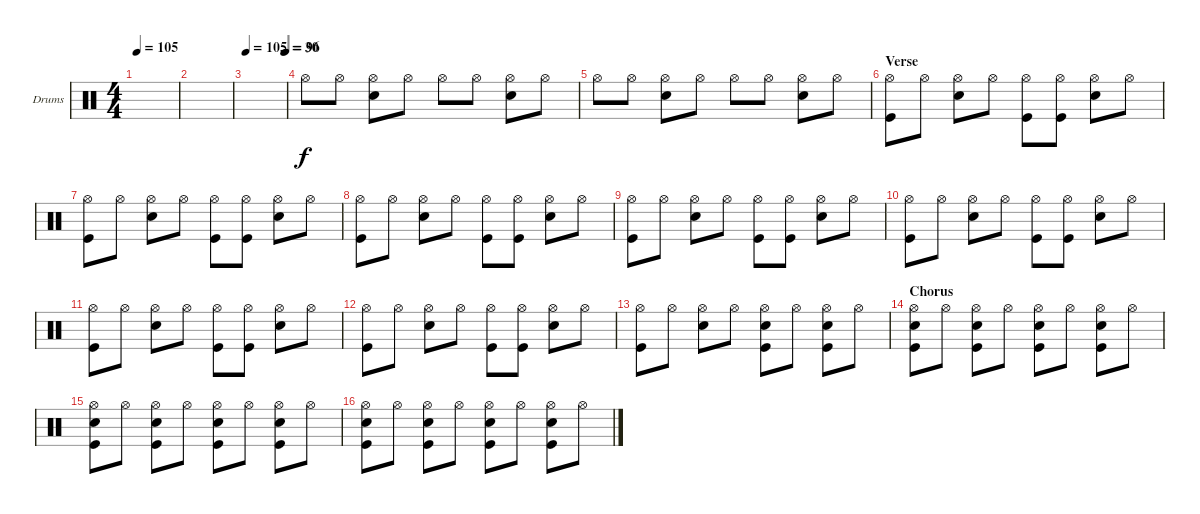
\defaultSystemsLayout 4
\bracketExtendMode groupsimilarinstruments
\firstSystemTrackNameOrientation horizontal
\otherSystemsTrackNameOrientation horizontal
\track ("Drumkit" "Drums") {instrument percussion}
\staff {score}
\articulation defaults
\ts (4 4)
\tempo 105
\clef neutral
\ks c
|
|
\tempo 105
\tempo (30 0.975)
\tempo (96 1)
|
"Hi-Hat (open)".8 "Hi-Hat (open)".8 ("Hi-Hat (open)" "Snare (hit) 2").8 "Hi-Hat (open)".8 "Hi-Hat (open)".8 "Hi-Hat (open)".8 ("Hi-Hat (open)" "Snare (hit) 2").8 "Hi-Hat (open)".8 |
"Hi-Hat (open)".8 "Hi-Hat (open)".8 ("Hi-Hat (open)" "Snare (hit) 2").8 "Hi-Hat (open)".8 "Hi-Hat (open)".8 "Hi-Hat (open)".8 ("Hi-Hat (open)" "Snare (hit) 2").8 "Hi-Hat (open)".8 |
\section ("" "Verse")
("Hi-Hat (open)" "Kick (hit)").8 "Hi-Hat (open)".8 ("Hi-Hat (open)" "Snare (hit) 2").8 "Hi-Hat (open)".8 ("Hi-Hat (open)" "Kick (hit)").8 ("Hi-Hat (open)" "Kick (hit)").8 ("Hi-Hat (open)" "Snare (hit) 2").8 "Hi-Hat (open)".8 |
("Hi-Hat (open)" "Kick (hit)").8 "Hi-Hat (open)".8 ("Hi-Hat (open)" "Snare (hit) 2").8 "Hi-Hat (open)".8 ("Hi-Hat (open)" "Kick (hit)").8 ("Hi-Hat (open)" "Kick (hit)").8 ("Hi-Hat (open)" "Snare (hit) 2").8 "Hi-Hat (open)".8 |
("Hi-Hat (open)" "Kick (hit)").8 "Hi-Hat (open)".8 ("Hi-Hat (open)" "Snare (hit) 2").8 "Hi-Hat (open)".8 ("Hi-Hat (open)" "Kick (hit)").8 ("Hi-Hat (open)" "Kick (hit)").8 ("Hi-Hat (open)" "Snare (hit) 2").8 "Hi-Hat (open)".8 |
("Hi-Hat (open)" "Kick (hit)").8 "Hi-Hat (open)".8 ("Hi-Hat (open)" "Snare (hit) 2").8 "Hi-Hat (open)".8 ("Hi-Hat (open)" "Kick (hit)").8 ("Hi-Hat (open)" "Kick (hit)").8 ("Hi-Hat (open)" "Snare (hit) 2").8 "Hi-Hat (open)".8 |
("Hi-Hat (open)" "Kick (hit)").8 "Hi-Hat (open)".8 ("Hi-Hat (open)" "Snare (hit) 2").8 "Hi-Hat (open)".8 ("Hi-Hat (open)" "Kick (hit)").8 ("Hi-Hat (open)" "Kick (hit)").8 ("Hi-Hat (open)" "Snare (hit) 2").8 "Hi-Hat (open)".8 |
("Hi-Hat (open)" "Kick (hit)").8 "Hi-Hat (open)".8 ("Hi-Hat (open)" "Snare (hit) 2").8 "Hi-Hat (open)".8 ("Hi-Hat (open)" "Kick (hit)").8 ("Hi-Hat (open)" "Kick (hit)").8 ("Hi-Hat (open)" "Snare (hit) 2").8 "Hi-Hat (open)".8 |
("Hi-Hat (open)" "Kick (hit)").8 "Hi-Hat (open)".8 ("Hi-Hat (open)" "Snare (hit) 2").8 "Hi-Hat (open)".8 ("Hi-Hat (open)" "Kick (hit)").8 ("Hi-Hat (open)" "Kick (hit)").8 ("Hi-Hat (open)" "Snare (hit) 2").8 "Hi-Hat (open)".8 |
("Hi-Hat (open)" "Kick (hit)").8 "Hi-Hat (open)".8 ("Hi-Hat (open)" "Snare (hit) 2").8 "Hi-Hat (open)".8 ("Hi-Hat (open)" "Kick (hit)" "Snare (hit) 2").8 "Hi-Hat (open)".8 ("Hi-Hat (open)" "Snare (hit) 2" "Kick (hit)").8 "Hi-Hat (open)".8 |
\section ("" "Chorus")
("Hi-Hat (open)" "Kick (hit)" "Snare (hit) 2").8 "Hi-Hat (open)".8 ("Hi-Hat (open)" "Snare (hit) 2" "Kick (hit)").8 "Hi-Hat (open)".8 ("Hi-Hat (open)" "Kick (hit)" "Snare (hit) 2").8 "Hi-Hat (open)".8 ("Hi-Hat (open)" "Snare (hit) 2" "Kick (hit)").8 "Hi-Hat (open)".8 |
("Hi-Hat (open)" "Kick (hit)" "Snare (hit) 2").8 "Hi-Hat (open)".8 ("Hi-Hat (open)" "Snare (hit) 2" "Kick (hit)").8 "Hi-Hat (open)".8 ("Hi-Hat (open)" "Kick (hit)" "Snare (hit) 2").8 "Hi-Hat (open)".8 ("Hi-Hat (open)" "Snare (hit) 2" "Kick (hit)").8 "Hi-Hat (open)".8 |
("Hi-Hat (open)" "Kick (hit)" "Snare (hit) 2").8 "Hi-Hat (open)".8 ("Hi-Hat (open)" "Snare (hit) 2" "Kick (hit)").8 "Hi-Hat (open)".8 ("Hi-Hat (open)" "Kick (hit)" "Snare (hit) 2").8 "Hi-Hat (open)".8 ("Hi-Hat (open)" "Snare (hit) 2" "Kick (hit)").8 "Hi-Hat (open)".8
